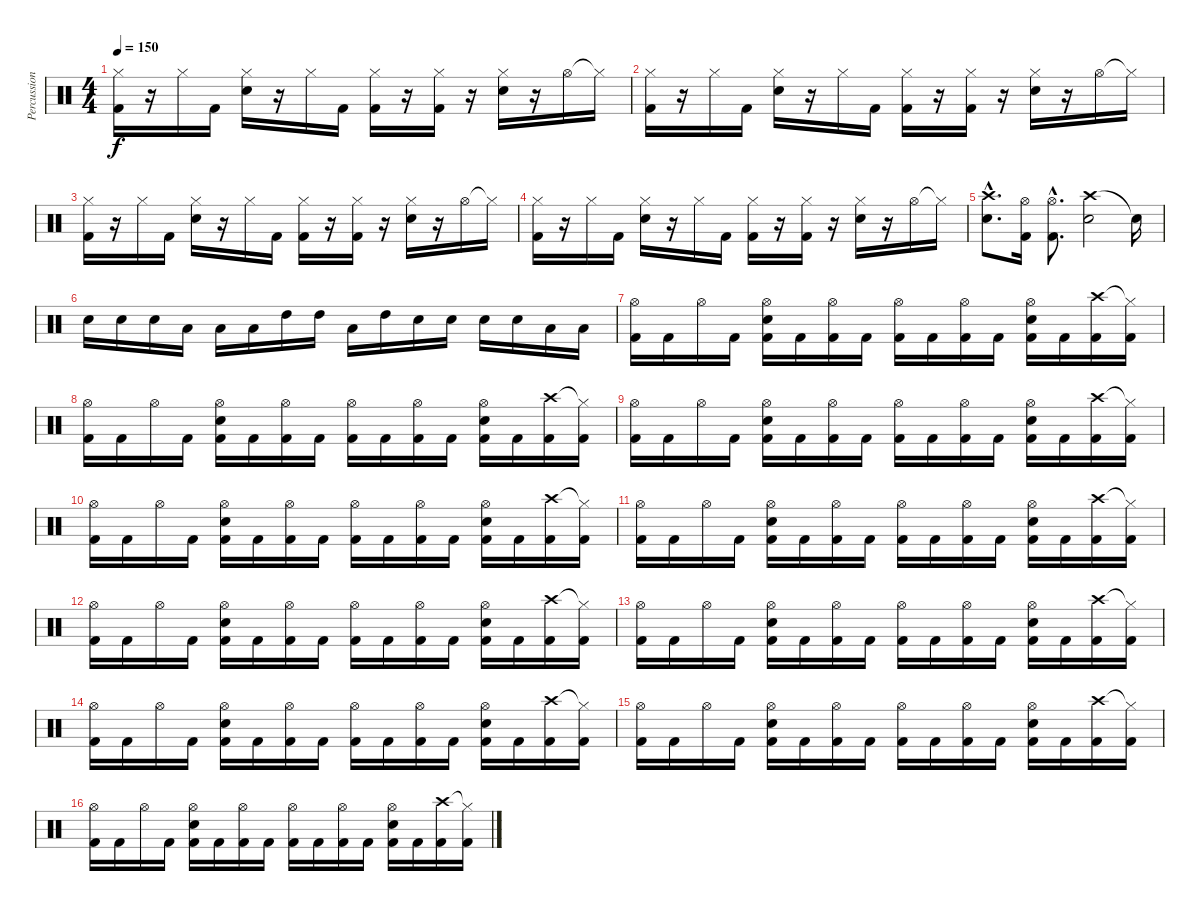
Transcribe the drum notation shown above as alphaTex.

\track ("Percussion" "Percussion") {instrument percussion}
\staff {score}
\articulation defaults
\ts (4 4)
\tempo 150
\clef neutral
\ks c
("Hi-Hat (closed)" "Kick (hit) 2").16{dy f} r.16 "Hi-Hat (closed)".16 "Kick (hit) 2".16 ("Hi-Hat (closed)" "Electric Snare (hit)").16 r.16 "Hi-Hat (closed)".16 "Kick (hit) 2".16 ("Hi-Hat (closed)" "Kick (hit) 2").16 r.16 ("Hi-Hat (closed)" "Kick (hit) 2").16 r.16 ("Hi-Hat (closed)" "Electric Snare (hit)").16 r.16 "Hi-Hat (open)".16 "Hi-Hat (closed)"{t}.16 |
("Hi-Hat (closed)" "Kick (hit) 2").16 r.16 "Hi-Hat (closed)".16 "Kick (hit) 2".16 ("Hi-Hat (closed)" "Electric Snare (hit)").16 r.16 "Hi-Hat (closed)".16 "Kick (hit) 2".16 ("Hi-Hat (closed)" "Kick (hit) 2").16 r.16 ("Hi-Hat (closed)" "Kick (hit) 2").16 r.16 ("Hi-Hat (closed)" "Electric Snare (hit)").16 r.16 "Hi-Hat (open)".16 "Hi-Hat (closed)"{t}.16 |
("Hi-Hat (closed)" "Kick (hit) 2").16 r.16 "Hi-Hat (closed)".16 "Kick (hit) 2".16 ("Hi-Hat (closed)" "Electric Snare (hit)").16 r.16 "Hi-Hat (closed)".16 "Kick (hit) 2".16 ("Hi-Hat (closed)" "Kick (hit) 2").16 r.16 ("Hi-Hat (closed)" "Kick (hit) 2").16 r.16 ("Hi-Hat (closed)" "Electric Snare (hit)").16 r.16 "Hi-Hat (open)".16 "Hi-Hat (closed)"{t}.16 |
("Hi-Hat (closed)" "Kick (hit) 2").16 r.16 "Hi-Hat (closed)".16 "Kick (hit) 2".16 ("Hi-Hat (closed)" "Electric Snare (hit)").16 r.16 "Hi-Hat (closed)".16 "Kick (hit) 2".16 ("Hi-Hat (closed)" "Kick (hit) 2").16 r.16 ("Hi-Hat (closed)" "Kick (hit) 2").16 r.16 ("Hi-Hat (closed)" "Electric Snare (hit)").16 r.16 "Hi-Hat (open)".16 "Hi-Hat (closed)"{t}.16 |
("Crash high (hit)"{hac} "Electric Snare (hit)"{hac}).8{d} ("Hi-Hat (open)" "Kick (hit) 2").16 ("Hi-Hat (open)"{hac} "Kick (hit) 2"{hac}).8{d} ("Crash high (hit)" "Electric Snare (hit)").2 "Snare (hit)"{t}.16 |
"Electric Snare (hit)".16 "Electric Snare (hit)".16 "Electric Snare (hit)".16 "Low Tom (hit)".16 "Low Tom (hit)".16 "Low Tom (hit)".16 "High Tom (hit)".16 "High Tom (hit)".16 "Low Tom (hit)".16 "High Tom (hit)".16 "Electric Snare (hit)".16 "Electric Snare (hit)".16 "Electric Snare (hit)".16 "Electric Snare (hit)".16 "Low Tom (hit)".16 "Low Tom (hit)".16 |
("Hi-Hat (open)" "Kick (hit) 2").16 "Kick (hit) 2".16 "Hi-Hat (open)".16 "Kick (hit) 2".16 ("Hi-Hat (open)" "Electric Snare (hit)" "Kick (hit) 2").16 "Kick (hit) 2".16 ("Hi-Hat (open)" "Kick (hit) 2").16 "Kick (hit) 2".16 ("Hi-Hat (open)" "Kick (hit) 2").16 "Kick (hit) 2".16 ("Hi-Hat (open)" "Kick (hit) 2").16 "Kick (hit) 2".16 ("Hi-Hat (open)" "Electric Snare (hit)" "Kick (hit) 2").16 "Kick (hit) 2".16 ("Crash high (hit)" "Kick (hit) 2").16 ("Hi-Hat (closed)"{t} "Kick (hit) 2").16 |
("Hi-Hat (open)" "Kick (hit) 2").16 "Kick (hit) 2".16 "Hi-Hat (open)".16 "Kick (hit) 2".16 ("Hi-Hat (open)" "Electric Snare (hit)" "Kick (hit) 2").16 "Kick (hit) 2".16 ("Hi-Hat (open)" "Kick (hit) 2").16 "Kick (hit) 2".16 ("Hi-Hat (open)" "Kick (hit) 2").16 "Kick (hit) 2".16 ("Hi-Hat (open)" "Kick (hit) 2").16 "Kick (hit) 2".16 ("Hi-Hat (open)" "Electric Snare (hit)" "Kick (hit) 2").16 "Kick (hit) 2".16 ("Crash high (hit)" "Kick (hit) 2").16 ("Hi-Hat (closed)"{t} "Kick (hit) 2").16 |
("Hi-Hat (open)" "Kick (hit) 2").16 "Kick (hit) 2".16 "Hi-Hat (open)".16 "Kick (hit) 2".16 ("Hi-Hat (open)" "Electric Snare (hit)" "Kick (hit) 2").16 "Kick (hit) 2".16 ("Hi-Hat (open)" "Kick (hit) 2").16 "Kick (hit) 2".16 ("Hi-Hat (open)" "Kick (hit) 2").16 "Kick (hit) 2".16 ("Hi-Hat (open)" "Kick (hit) 2").16 "Kick (hit) 2".16 ("Hi-Hat (open)" "Electric Snare (hit)" "Kick (hit) 2").16 "Kick (hit) 2".16 ("Crash high (hit)" "Kick (hit) 2").16 ("Hi-Hat (closed)"{t} "Kick (hit) 2").16 |
("Hi-Hat (open)" "Kick (hit) 2").16 "Kick (hit) 2".16 "Hi-Hat (open)".16 "Kick (hit) 2".16 ("Hi-Hat (open)" "Electric Snare (hit)" "Kick (hit) 2").16 "Kick (hit) 2".16 ("Hi-Hat (open)" "Kick (hit) 2").16 "Kick (hit) 2".16 ("Hi-Hat (open)" "Kick (hit) 2").16 "Kick (hit) 2".16 ("Hi-Hat (open)" "Kick (hit) 2").16 "Kick (hit) 2".16 ("Hi-Hat (open)" "Electric Snare (hit)" "Kick (hit) 2").16 "Kick (hit) 2".16 ("Crash high (hit)" "Kick (hit) 2").16 ("Hi-Hat (closed)"{t} "Kick (hit) 2").16 |
("Hi-Hat (open)" "Kick (hit) 2").16 "Kick (hit) 2".16 "Hi-Hat (open)".16 "Kick (hit) 2".16 ("Hi-Hat (open)" "Electric Snare (hit)" "Kick (hit) 2").16 "Kick (hit) 2".16 ("Hi-Hat (open)" "Kick (hit) 2").16 "Kick (hit) 2".16 ("Hi-Hat (open)" "Kick (hit) 2").16 "Kick (hit) 2".16 ("Hi-Hat (open)" "Kick (hit) 2").16 "Kick (hit) 2".16 ("Hi-Hat (open)" "Electric Snare (hit)" "Kick (hit) 2").16 "Kick (hit) 2".16 ("Crash high (hit)" "Kick (hit) 2").16 ("Hi-Hat (closed)"{t} "Kick (hit) 2").16 |
("Hi-Hat (open)" "Kick (hit) 2").16 "Kick (hit) 2".16 "Hi-Hat (open)".16 "Kick (hit) 2".16 ("Hi-Hat (open)" "Electric Snare (hit)" "Kick (hit) 2").16 "Kick (hit) 2".16 ("Hi-Hat (open)" "Kick (hit) 2").16 "Kick (hit) 2".16 ("Hi-Hat (open)" "Kick (hit) 2").16 "Kick (hit) 2".16 ("Hi-Hat (open)" "Kick (hit) 2").16 "Kick (hit) 2".16 ("Hi-Hat (open)" "Electric Snare (hit)" "Kick (hit) 2").16 "Kick (hit) 2".16 ("Crash high (hit)" "Kick (hit) 2").16 ("Hi-Hat (closed)"{t} "Kick (hit) 2").16 |
("Hi-Hat (open)" "Kick (hit) 2").16 "Kick (hit) 2".16 "Hi-Hat (open)".16 "Kick (hit) 2".16 ("Hi-Hat (open)" "Electric Snare (hit)" "Kick (hit) 2").16 "Kick (hit) 2".16 ("Hi-Hat (open)" "Kick (hit) 2").16 "Kick (hit) 2".16 ("Hi-Hat (open)" "Kick (hit) 2").16 "Kick (hit) 2".16 ("Hi-Hat (open)" "Kick (hit) 2").16 "Kick (hit) 2".16 ("Hi-Hat (open)" "Electric Snare (hit)" "Kick (hit) 2").16 "Kick (hit) 2".16 ("Crash high (hit)" "Kick (hit) 2").16 ("Hi-Hat (closed)"{t} "Kick (hit) 2").16 |
("Hi-Hat (open)" "Kick (hit) 2").16 "Kick (hit) 2".16 "Hi-Hat (open)".16 "Kick (hit) 2".16 ("Hi-Hat (open)" "Electric Snare (hit)" "Kick (hit) 2").16 "Kick (hit) 2".16 ("Hi-Hat (open)" "Kick (hit) 2").16 "Kick (hit) 2".16 ("Hi-Hat (open)" "Kick (hit) 2").16 "Kick (hit) 2".16 ("Hi-Hat (open)" "Kick (hit) 2").16 "Kick (hit) 2".16 ("Hi-Hat (open)" "Electric Snare (hit)" "Kick (hit) 2").16 "Kick (hit) 2".16 ("Crash high (hit)" "Kick (hit) 2").16 ("Hi-Hat (closed)"{t} "Kick (hit) 2").16 |
("Hi-Hat (open)" "Kick (hit) 2").16 "Kick (hit) 2".16 "Hi-Hat (open)".16 "Kick (hit) 2".16 ("Hi-Hat (open)" "Electric Snare (hit)" "Kick (hit) 2").16 "Kick (hit) 2".16 ("Hi-Hat (open)" "Kick (hit) 2").16 "Kick (hit) 2".16 ("Hi-Hat (open)" "Kick (hit) 2").16 "Kick (hit) 2".16 ("Hi-Hat (open)" "Kick (hit) 2").16 "Kick (hit) 2".16 ("Hi-Hat (open)" "Electric Snare (hit)" "Kick (hit) 2").16 "Kick (hit) 2".16 ("Crash high (hit)" "Kick (hit) 2").16 ("Hi-Hat (closed)"{t} "Kick (hit) 2").16 |
("Hi-Hat (open)" "Kick (hit) 2").16 "Kick (hit) 2".16 "Hi-Hat (open)".16 "Kick (hit) 2".16 ("Hi-Hat (open)" "Electric Snare (hit)" "Kick (hit) 2").16 "Kick (hit) 2".16 ("Hi-Hat (open)" "Kick (hit) 2").16 "Kick (hit) 2".16 ("Hi-Hat (open)" "Kick (hit) 2").16 "Kick (hit) 2".16 ("Hi-Hat (open)" "Kick (hit) 2").16 "Kick (hit) 2".16 ("Hi-Hat (open)" "Electric Snare (hit)" "Kick (hit) 2").16 "Kick (hit) 2".16 ("Crash high (hit)" "Kick (hit) 2").16 ("Hi-Hat (closed)"{t} "Kick (hit) 2").16
